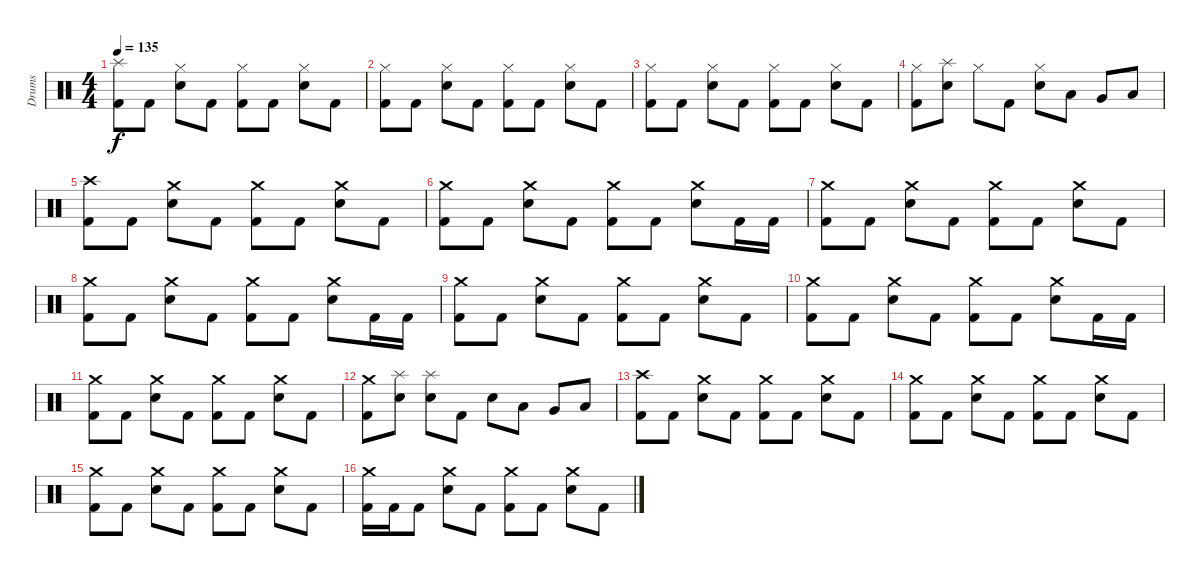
\track ("Drums" "Drums") {instrument percussion}
\staff {score}
\articulation defaults
\ts (4 4)
\tempo 135
\clef neutral
\ks c
("Kick (hit) 2" "Splash (hit)").8{dy f} "Kick (hit) 2".8 ("Hi-Hat (closed)" "Electric Snare (hit)").8 "Kick (hit) 2".8 ("Kick (hit) 2" "Hi-Hat (closed)").8 "Kick (hit) 2".8 ("Hi-Hat (closed)" "Electric Snare (hit)").8 "Kick (hit) 2".8 |
("Kick (hit) 2" "Hi-Hat (closed)").8 "Kick (hit) 2".8 ("Hi-Hat (closed)" "Electric Snare (hit)").8 "Kick (hit) 2".8 ("Kick (hit) 2" "Hi-Hat (closed)").8 "Kick (hit) 2".8 ("Hi-Hat (closed)" "Electric Snare (hit)").8 "Kick (hit) 2".8 |
("Kick (hit) 2" "Hi-Hat (closed)").8 "Kick (hit) 2".8 ("Hi-Hat (closed)" "Electric Snare (hit)").8 "Kick (hit) 2".8 ("Kick (hit) 2" "Hi-Hat (closed)").8 "Kick (hit) 2".8 ("Hi-Hat (closed)" "Electric Snare (hit)").8 "Kick (hit) 2".8 |
("Kick (hit) 2" "Hi-Hat (closed)").8 ("Splash (hit)" "Electric Snare (hit)").8 "Hi-Hat (closed)".8 "Kick (hit) 2".8 ("Hi-Hat (closed)" "Electric Snare (hit)").8 "Low Tom (hit)".8 "Very Low Tom (hit)".8 "Low Floor Tom (hit)".8 |
("Kick (hit) 2" "Crash high (hit)").8 "Kick (hit) 2".8 ("Crash medium (hit)" "Electric Snare (hit)").8 "Kick (hit) 2".8 ("Kick (hit) 2" "Crash medium (hit)").8 "Kick (hit) 2".8 ("Crash medium (hit)" "Electric Snare (hit)").8 "Kick (hit) 2".8 |
("Kick (hit) 2" "Crash medium (hit)").8 "Kick (hit) 2".8 ("Crash medium (hit)" "Electric Snare (hit)").8 "Kick (hit) 2".8 ("Kick (hit) 2" "Crash medium (hit)").8 "Kick (hit) 2".8 ("Crash medium (hit)" "Electric Snare (hit)").8 "Kick (hit) 2".16 "Kick (hit) 2".16 |
("Kick (hit) 2" "Crash medium (hit)").8 "Kick (hit) 2".8 ("Crash medium (hit)" "Electric Snare (hit)").8 "Kick (hit) 2".8 ("Kick (hit) 2" "Crash medium (hit)").8 "Kick (hit) 2".8 ("Crash medium (hit)" "Electric Snare (hit)").8 "Kick (hit) 2".8 |
("Kick (hit) 2" "Crash medium (hit)").8 "Kick (hit) 2".8 ("Crash medium (hit)" "Electric Snare (hit)").8 "Kick (hit) 2".8 ("Kick (hit) 2" "Crash medium (hit)").8 "Kick (hit) 2".8 ("Crash medium (hit)" "Electric Snare (hit)").8 "Kick (hit) 2".16 "Kick (hit) 2".16 |
("Kick (hit) 2" "Crash medium (hit)").8 "Kick (hit) 2".8 ("Crash medium (hit)" "Electric Snare (hit)").8 "Kick (hit) 2".8 ("Kick (hit) 2" "Crash medium (hit)").8 "Kick (hit) 2".8 ("Crash medium (hit)" "Electric Snare (hit)").8 "Kick (hit) 2".8 |
("Kick (hit) 2" "Crash medium (hit)").8 "Kick (hit) 2".8 ("Crash medium (hit)" "Electric Snare (hit)").8 "Kick (hit) 2".8 ("Kick (hit) 2" "Crash medium (hit)").8 "Kick (hit) 2".8 ("Crash medium (hit)" "Electric Snare (hit)").8 "Kick (hit) 2".16 "Kick (hit) 2".16 |
("Kick (hit) 2" "Crash medium (hit)").8 "Kick (hit) 2".8 ("Crash medium (hit)" "Electric Snare (hit)").8 "Kick (hit) 2".8 ("Kick (hit) 2" "Crash medium (hit)").8 "Kick (hit) 2".8 ("Crash medium (hit)" "Electric Snare (hit)").8 "Kick (hit) 2".8 |
("Kick (hit) 2" "Crash medium (hit)").8 ("Splash (hit)" "Electric Snare (hit)").8 ("Splash (hit)" "Electric Snare (hit)").8 "Kick (hit) 2".8 "Electric Snare (hit)".8 "Low Tom (hit)".8 "Very Low Tom (hit)".8 "Low Floor Tom (hit)".8 |
("Kick (hit) 2" "Crash high (hit)").8 "Kick (hit) 2".8 ("Crash medium (hit)" "Electric Snare (hit)").8 "Kick (hit) 2".8 ("Kick (hit) 2" "Crash medium (hit)").8 "Kick (hit) 2".8 ("Crash medium (hit)" "Electric Snare (hit)").8 "Kick (hit) 2".8 |
("Kick (hit) 2" "Crash medium (hit)").8 "Kick (hit) 2".8 ("Crash medium (hit)" "Electric Snare (hit)").8 "Kick (hit) 2".8 ("Kick (hit) 2" "Crash medium (hit)").8 "Kick (hit) 2".8 ("Crash medium (hit)" "Electric Snare (hit)").8 "Kick (hit) 2".8 |
("Kick (hit) 2" "Crash medium (hit)").8 "Kick (hit) 2".8 ("Crash medium (hit)" "Electric Snare (hit)").8 "Kick (hit) 2".8 ("Kick (hit) 2" "Crash medium (hit)").8 "Kick (hit) 2".8 ("Crash medium (hit)" "Electric Snare (hit)").8 "Kick (hit) 2".8 |
("Kick (hit) 2" "Crash medium (hit)").16 "Kick (hit) 2".16 "Kick (hit) 2".8 ("Crash medium (hit)" "Electric Snare (hit)").8 "Kick (hit) 2".8 ("Kick (hit) 2" "Crash medium (hit)").8 "Kick (hit) 2".8 ("Crash medium (hit)" "Electric Snare (hit)").8 "Kick (hit) 2".8
